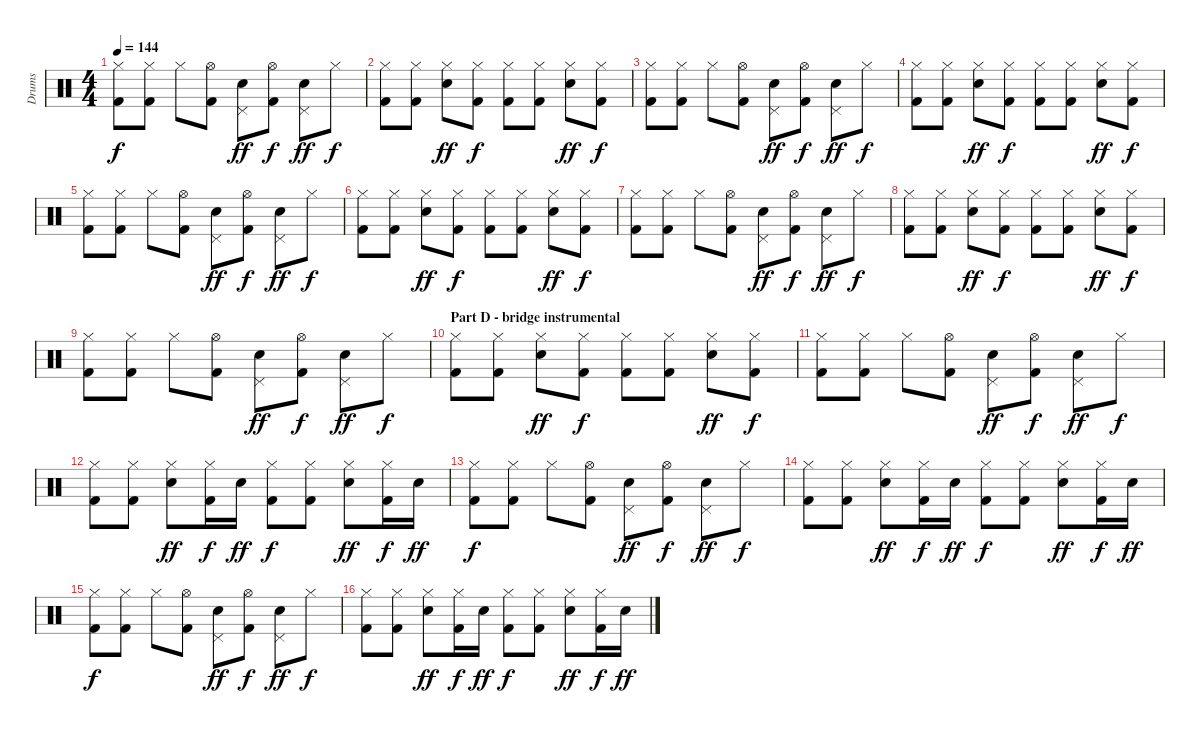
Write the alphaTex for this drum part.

\track ("Drums" "Drums") {instrument percussion}
\staff {score}
\articulation defaults
\ts (4 4)
\tempo 144
\clef neutral
\ks c
("Hi-Hat (closed)" "Kick (hit) 2").8{dy f} ("Hi-Hat (closed)" "Kick (hit) 2").8 "Hi-Hat (closed)".8 ("Hi-Hat (open)" "Kick (hit) 2").8 ("Pedal Hi-Hat (hit)" "Electric Snare (hit)").8{dy ff} ("Hi-Hat (open)" "Kick (hit) 2").8{dy f} ("Pedal Hi-Hat (hit)" "Electric Snare (hit)").8{dy ff} "Hi-Hat (closed)".8{dy f} |
("Hi-Hat (closed)" "Kick (hit) 2").8 ("Hi-Hat (closed)" "Kick (hit) 2").8 ("Hi-Hat (closed)" "Electric Snare (hit)").8{dy ff} ("Hi-Hat (closed)" "Kick (hit) 2").8{dy f} ("Hi-Hat (closed)" "Kick (hit) 2").8 ("Hi-Hat (closed)" "Kick (hit) 2").8 ("Hi-Hat (closed)" "Electric Snare (hit)").8{dy ff} ("Hi-Hat (closed)" "Kick (hit) 2").8{dy f} |
("Hi-Hat (closed)" "Kick (hit) 2").8 ("Hi-Hat (closed)" "Kick (hit) 2").8 "Hi-Hat (closed)".8 ("Hi-Hat (open)" "Kick (hit) 2").8 ("Pedal Hi-Hat (hit)" "Electric Snare (hit)").8{dy ff} ("Hi-Hat (open)" "Kick (hit) 2").8{dy f} ("Pedal Hi-Hat (hit)" "Electric Snare (hit)").8{dy ff} "Hi-Hat (closed)".8{dy f} |
("Hi-Hat (closed)" "Kick (hit) 2").8 ("Hi-Hat (closed)" "Kick (hit) 2").8 ("Hi-Hat (closed)" "Electric Snare (hit)").8{dy ff} ("Hi-Hat (closed)" "Kick (hit) 2").8{dy f} ("Hi-Hat (closed)" "Kick (hit) 2").8 ("Hi-Hat (closed)" "Kick (hit) 2").8 ("Hi-Hat (closed)" "Electric Snare (hit)").8{dy ff} ("Hi-Hat (closed)" "Kick (hit) 2").8{dy f} |
("Hi-Hat (closed)" "Kick (hit) 2").8 ("Hi-Hat (closed)" "Kick (hit) 2").8 "Hi-Hat (closed)".8 ("Hi-Hat (open)" "Kick (hit) 2").8 ("Pedal Hi-Hat (hit)" "Electric Snare (hit)").8{dy ff} ("Hi-Hat (open)" "Kick (hit) 2").8{dy f} ("Pedal Hi-Hat (hit)" "Electric Snare (hit)").8{dy ff} "Hi-Hat (closed)".8{dy f} |
("Hi-Hat (closed)" "Kick (hit) 2").8 ("Hi-Hat (closed)" "Kick (hit) 2").8 ("Hi-Hat (closed)" "Electric Snare (hit)").8{dy ff} ("Hi-Hat (closed)" "Kick (hit) 2").8{dy f} ("Hi-Hat (closed)" "Kick (hit) 2").8 ("Hi-Hat (closed)" "Kick (hit) 2").8 ("Hi-Hat (closed)" "Electric Snare (hit)").8{dy ff} ("Hi-Hat (closed)" "Kick (hit) 2").8{dy f} |
("Hi-Hat (closed)" "Kick (hit) 2").8 ("Hi-Hat (closed)" "Kick (hit) 2").8 "Hi-Hat (closed)".8 ("Hi-Hat (open)" "Kick (hit) 2").8 ("Pedal Hi-Hat (hit)" "Electric Snare (hit)").8{dy ff} ("Hi-Hat (open)" "Kick (hit) 2").8{dy f} ("Pedal Hi-Hat (hit)" "Electric Snare (hit)").8{dy ff} "Hi-Hat (closed)".8{dy f} |
("Hi-Hat (closed)" "Kick (hit) 2").8 ("Hi-Hat (closed)" "Kick (hit) 2").8 ("Hi-Hat (closed)" "Electric Snare (hit)").8{dy ff} ("Hi-Hat (closed)" "Kick (hit) 2").8{dy f} ("Hi-Hat (closed)" "Kick (hit) 2").8 ("Hi-Hat (closed)" "Kick (hit) 2").8 ("Hi-Hat (closed)" "Electric Snare (hit)").8{dy ff} ("Hi-Hat (closed)" "Kick (hit) 2").8{dy f} |
("Hi-Hat (closed)" "Kick (hit) 2").8 ("Hi-Hat (closed)" "Kick (hit) 2").8 "Hi-Hat (closed)".8 ("Hi-Hat (open)" "Kick (hit) 2").8 ("Pedal Hi-Hat (hit)" "Electric Snare (hit)").8{dy ff} ("Hi-Hat (open)" "Kick (hit) 2").8{dy f} ("Pedal Hi-Hat (hit)" "Electric Snare (hit)").8{dy ff} "Hi-Hat (closed)".8{dy f} |
\section ("" "Part D - bridge instrumental")
("Hi-Hat (closed)" "Kick (hit) 2").8 ("Hi-Hat (closed)" "Kick (hit) 2").8 ("Hi-Hat (closed)" "Electric Snare (hit)").8{dy ff} ("Hi-Hat (closed)" "Kick (hit) 2").8{dy f} ("Hi-Hat (closed)" "Kick (hit) 2").8 ("Hi-Hat (closed)" "Kick (hit) 2").8 ("Hi-Hat (closed)" "Electric Snare (hit)").8{dy ff} ("Hi-Hat (closed)" "Kick (hit) 2").8{dy f} |
("Hi-Hat (closed)" "Kick (hit) 2").8 ("Hi-Hat (closed)" "Kick (hit) 2").8 "Hi-Hat (closed)".8 ("Hi-Hat (open)" "Kick (hit) 2").8 ("Pedal Hi-Hat (hit)" "Electric Snare (hit)").8{dy ff} ("Hi-Hat (open)" "Kick (hit) 2").8{dy f} ("Pedal Hi-Hat (hit)" "Electric Snare (hit)").8{dy ff} "Hi-Hat (closed)".8{dy f} |
("Hi-Hat (closed)" "Kick (hit) 2").8 ("Hi-Hat (closed)" "Kick (hit) 2").8 ("Hi-Hat (closed)" "Electric Snare (hit)").8{dy ff} ("Hi-Hat (closed)" "Kick (hit) 2").16{dy f} "Electric Snare (hit)".16{dy ff} ("Hi-Hat (closed)" "Kick (hit) 2").8{dy f} ("Hi-Hat (closed)" "Kick (hit) 2").8 ("Hi-Hat (closed)" "Electric Snare (hit)").8{dy ff} ("Hi-Hat (closed)" "Kick (hit) 2").16{dy f} "Electric Snare (hit)".16{dy ff} |
("Hi-Hat (closed)" "Kick (hit) 2").8{dy f} ("Hi-Hat (closed)" "Kick (hit) 2").8 "Hi-Hat (closed)".8 ("Hi-Hat (open)" "Kick (hit) 2").8 ("Pedal Hi-Hat (hit)" "Electric Snare (hit)").8{dy ff} ("Hi-Hat (open)" "Kick (hit) 2").8{dy f} ("Pedal Hi-Hat (hit)" "Electric Snare (hit)").8{dy ff} "Hi-Hat (closed)".8{dy f} |
("Hi-Hat (closed)" "Kick (hit) 2").8 ("Hi-Hat (closed)" "Kick (hit) 2").8 ("Hi-Hat (closed)" "Electric Snare (hit)").8{dy ff} ("Hi-Hat (closed)" "Kick (hit) 2").16{dy f} "Electric Snare (hit)".16{dy ff} ("Hi-Hat (closed)" "Kick (hit) 2").8{dy f} ("Hi-Hat (closed)" "Kick (hit) 2").8 ("Hi-Hat (closed)" "Electric Snare (hit)").8{dy ff} ("Hi-Hat (closed)" "Kick (hit) 2").16{dy f} "Electric Snare (hit)".16{dy ff} |
("Hi-Hat (closed)" "Kick (hit) 2").8{dy f} ("Hi-Hat (closed)" "Kick (hit) 2").8 "Hi-Hat (closed)".8 ("Hi-Hat (open)" "Kick (hit) 2").8 ("Pedal Hi-Hat (hit)" "Electric Snare (hit)").8{dy ff} ("Hi-Hat (open)" "Kick (hit) 2").8{dy f} ("Pedal Hi-Hat (hit)" "Electric Snare (hit)").8{dy ff} "Hi-Hat (closed)".8{dy f} |
("Hi-Hat (closed)" "Kick (hit) 2").8 ("Hi-Hat (closed)" "Kick (hit) 2").8 ("Hi-Hat (closed)" "Electric Snare (hit)").8{dy ff} ("Hi-Hat (closed)" "Kick (hit) 2").16{dy f} "Electric Snare (hit)".16{dy ff} ("Hi-Hat (closed)" "Kick (hit) 2").8{dy f} ("Hi-Hat (closed)" "Kick (hit) 2").8 ("Hi-Hat (closed)" "Electric Snare (hit)").8{dy ff} ("Hi-Hat (closed)" "Kick (hit) 2").16{dy f} "Electric Snare (hit)".16{dy ff}
